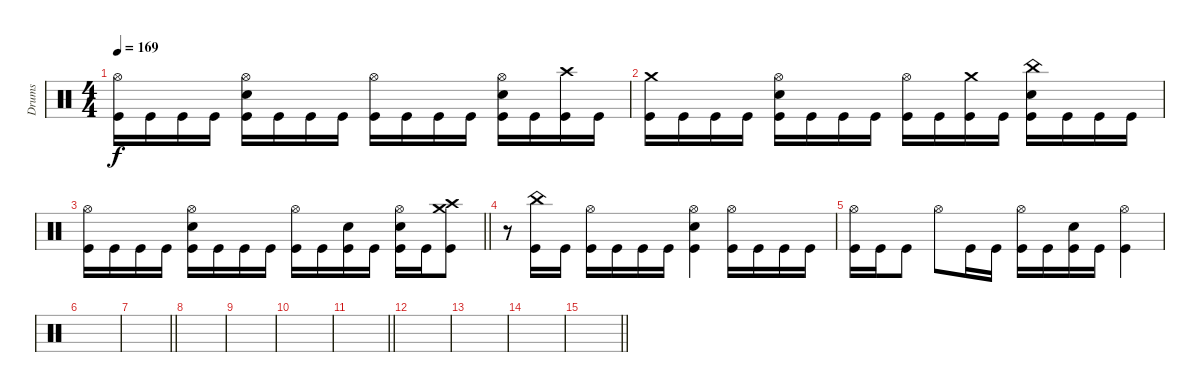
\track ("Drums" "Drums") {instrument percussion}
\staff
\articulation defaults
\ts (4 4)
\tempo 169
\clef neutral
\ks c
("Hi-Hat (open)" "Kick (hit)").16{dy f} "Kick (hit)".16 "Kick (hit)".16 "Kick (hit)".16 ("Hi-Hat (open)" "Electric Snare (hit)" "Kick (hit)").16 "Kick (hit)".16 "Kick (hit)".16 "Kick (hit)".16 ("Hi-Hat (open)" "Kick (hit)").16 "Kick (hit)".16 "Kick (hit)".16 "Kick (hit)".16 ("Hi-Hat (open)" "Electric Snare (hit)" "Kick (hit)").16 "Kick (hit)".16 ("Crash high (hit)" "Kick (hit)").16 "Kick (hit)".16 |
("Crash medium (hit)" "Kick (hit)").16 "Kick (hit)".16 "Kick (hit)".16 "Kick (hit)".16 ("Hi-Hat (open)" "Electric Snare (hit)" "Kick (hit)").16 "Kick (hit)".16 "Kick (hit)".16 "Kick (hit)".16 ("Hi-Hat (open)" "Kick (hit)").16 "Kick (hit)".16 ("Crash medium (hit)" "Kick (hit)").16 "Kick (hit)".16 ("China (hit)" "Electric Snare (hit)" "Kick (hit)").16 "Kick (hit)".16 "Kick (hit)".16 "Kick (hit)".16 |
\barLineRight lightlight
("Hi-Hat (open)" "Kick (hit)").16 "Kick (hit)".16 "Kick (hit)".16 "Kick (hit)".16 ("Hi-Hat (open)" "Electric Snare (hit)" "Kick (hit)").16 "Kick (hit)".16 "Kick (hit)".16 "Kick (hit)".16 ("Hi-Hat (open)" "Kick (hit)").16 "Kick (hit)".16 ("Electric Snare (hit)" "Kick (hit)").16 "Kick (hit)".16 ("Hi-Hat (open)" "Electric Snare (hit)" "Kick (hit)").16 "Kick (hit)".16 ("Crash high (hit)" "Crash medium (hit)" "Kick (hit)").8 |
r.8 ("China (hit)" "Kick (hit)").16 "Kick (hit)".16 ("Hi-Hat (open)" "Kick (hit)").16 "Kick (hit)".16 "Kick (hit)".16 "Kick (hit)".16 ("Hi-Hat (open)" "Electric Snare (hit)" "Kick (hit)").4 ("Hi-Hat (open)" "Kick (hit)").16 "Kick (hit)".16 "Kick (hit)".16 "Kick (hit)".16 |
("Hi-Hat (open)" "Kick (hit)").16 "Kick (hit)".16 "Kick (hit)".8 "Hi-Hat (open)".8 "Kick (hit)".16 "Kick (hit)".16 ("Hi-Hat (open)" "Kick (hit)").16 "Kick (hit)".16 ("Electric Snare (hit)" "Kick (hit)").16 "Kick (hit)".16 ("Hi-Hat (open)" "Kick (hit)").4 |
|
\barLineRight lightlight
|
|
|
|
\barLineRight lightlight
|
|
|
|
\barLineRight lightlight
